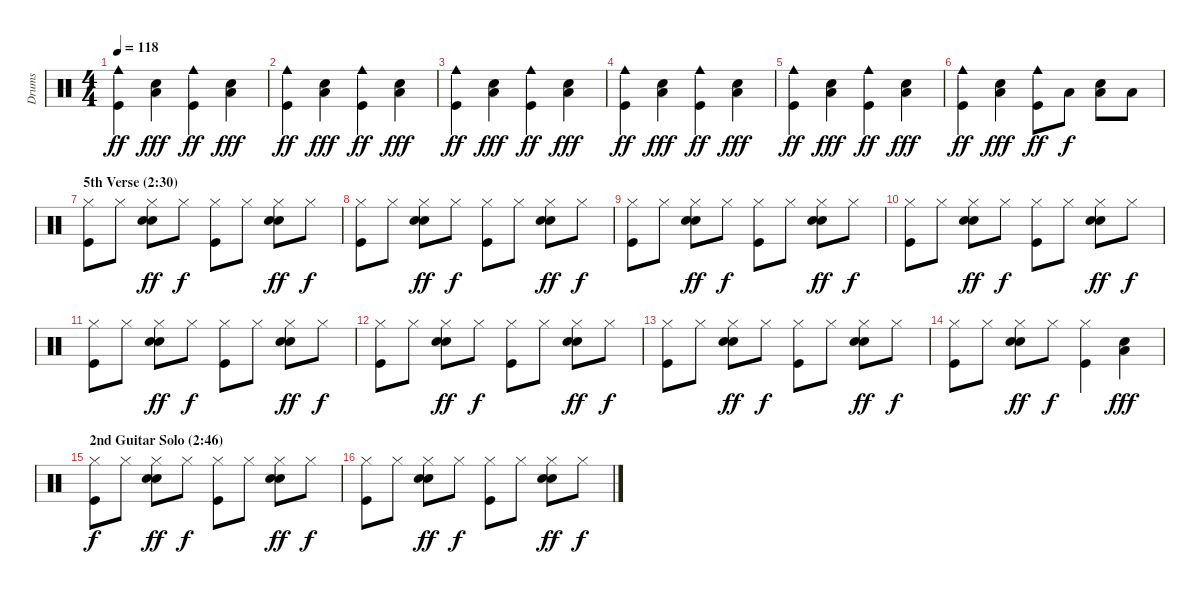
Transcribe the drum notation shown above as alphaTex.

\track ("Drums" "Drums") {instrument percussion}
\staff {score}
\articulation defaults
\ts (4 4)
\tempo 118
\clef neutral
\ks c
("Cowbell medium (hit)" "Kick (hit)").4{dy ff} ("Electric Snare (hit)" "Low Floor Tom (hit)").4{dy fff} ("Cowbell medium (hit)" "Kick (hit)").4{dy ff} ("Electric Snare (hit)" "Low Floor Tom (hit)").4{dy fff} |
("Cowbell medium (hit)" "Kick (hit)").4{dy ff} ("Electric Snare (hit)" "Low Floor Tom (hit)").4{dy fff} ("Cowbell medium (hit)" "Kick (hit)").4{dy ff} ("Electric Snare (hit)" "Low Floor Tom (hit)").4{dy fff} |
("Cowbell medium (hit)" "Kick (hit)").4{dy ff} ("Electric Snare (hit)" "Low Floor Tom (hit)").4{dy fff} ("Cowbell medium (hit)" "Kick (hit)").4{dy ff} ("Electric Snare (hit)" "Low Floor Tom (hit)").4{dy fff} |
("Cowbell medium (hit)" "Kick (hit)").4{dy ff} ("Electric Snare (hit)" "Low Floor Tom (hit)").4{dy fff} ("Cowbell medium (hit)" "Kick (hit)").4{dy ff} ("Electric Snare (hit)" "Low Floor Tom (hit)").4{dy fff} |
("Cowbell medium (hit)" "Kick (hit)").4{dy ff} ("Electric Snare (hit)" "Low Floor Tom (hit)").4{dy fff} ("Cowbell medium (hit)" "Kick (hit)").4{dy ff} ("Electric Snare (hit)" "Low Floor Tom (hit)").4{dy fff} |
("Cowbell medium (hit)" "Kick (hit)").4{dy ff} ("Electric Snare (hit)" "Low Floor Tom (hit)").4{dy fff} ("Cowbell medium (hit)" "Kick (hit)").8{dy ff} "Low Floor Tom (hit)".8{dy f} ("Electric Snare (hit)" "Low Floor Tom (hit)").8 "Low Floor Tom (hit)".8 |
\section ("" "5th Verse (2:30)")
("Hi-Hat (closed)" "Kick (hit)").8 "Hi-Hat (closed)".8 ("Hi-Hat (closed)" "Electric Snare (hit)" "Snare (hit) 2").8{dy ff} "Hi-Hat (closed)".8{dy f} ("Hi-Hat (closed)" "Kick (hit)").8 "Hi-Hat (closed)".8 ("Hi-Hat (closed)" "Electric Snare (hit)" "Snare (hit) 2").8{dy ff} "Hi-Hat (closed)".8{dy f} |
("Hi-Hat (closed)" "Kick (hit)").8 "Hi-Hat (closed)".8 ("Hi-Hat (closed)" "Electric Snare (hit)" "Snare (hit) 2").8{dy ff} "Hi-Hat (closed)".8{dy f} ("Hi-Hat (closed)" "Kick (hit)").8 "Hi-Hat (closed)".8 ("Hi-Hat (closed)" "Electric Snare (hit)" "Snare (hit) 2").8{dy ff} "Hi-Hat (closed)".8{dy f} |
("Hi-Hat (closed)" "Kick (hit)").8 "Hi-Hat (closed)".8 ("Hi-Hat (closed)" "Electric Snare (hit)" "Snare (hit) 2").8{dy ff} "Hi-Hat (closed)".8{dy f} ("Hi-Hat (closed)" "Kick (hit)").8 "Hi-Hat (closed)".8 ("Hi-Hat (closed)" "Electric Snare (hit)" "Snare (hit) 2").8{dy ff} "Hi-Hat (closed)".8{dy f} |
("Hi-Hat (closed)" "Kick (hit)").8 "Hi-Hat (closed)".8 ("Hi-Hat (closed)" "Electric Snare (hit)" "Snare (hit) 2").8{dy ff} "Hi-Hat (closed)".8{dy f} ("Hi-Hat (closed)" "Kick (hit)").8 "Hi-Hat (closed)".8 ("Hi-Hat (closed)" "Electric Snare (hit)" "Snare (hit) 2").8{dy ff} "Hi-Hat (closed)".8{dy f} |
("Hi-Hat (closed)" "Kick (hit)").8 "Hi-Hat (closed)".8 ("Hi-Hat (closed)" "Electric Snare (hit)" "Snare (hit) 2").8{dy ff} "Hi-Hat (closed)".8{dy f} ("Hi-Hat (closed)" "Kick (hit)").8 "Hi-Hat (closed)".8 ("Hi-Hat (closed)" "Electric Snare (hit)" "Snare (hit) 2").8{dy ff} "Hi-Hat (closed)".8{dy f} |
("Hi-Hat (closed)" "Kick (hit)").8 "Hi-Hat (closed)".8 ("Hi-Hat (closed)" "Electric Snare (hit)" "Snare (hit) 2").8{dy ff} "Hi-Hat (closed)".8{dy f} ("Hi-Hat (closed)" "Kick (hit)").8 "Hi-Hat (closed)".8 ("Hi-Hat (closed)" "Electric Snare (hit)" "Snare (hit) 2").8{dy ff} "Hi-Hat (closed)".8{dy f} |
("Hi-Hat (closed)" "Kick (hit)").8 "Hi-Hat (closed)".8 ("Hi-Hat (closed)" "Electric Snare (hit)" "Snare (hit) 2").8{dy ff} "Hi-Hat (closed)".8{dy f} ("Hi-Hat (closed)" "Kick (hit)").8 "Hi-Hat (closed)".8 ("Hi-Hat (closed)" "Electric Snare (hit)" "Snare (hit) 2").8{dy ff} "Hi-Hat (closed)".8{dy f} |
("Hi-Hat (closed)" "Kick (hit)").8 "Hi-Hat (closed)".8 ("Hi-Hat (closed)" "Electric Snare (hit)" "Snare (hit) 2").8{dy ff} "Hi-Hat (closed)".8{dy f} ("Hi-Hat (closed)" "Kick (hit)").4 ("Electric Snare (hit)" "Low Floor Tom (hit)").4{dy fff} |
\section ("" "2nd Guitar Solo (2:46)")
("Hi-Hat (closed)" "Kick (hit)").8{dy f} "Hi-Hat (closed)".8 ("Hi-Hat (closed)" "Electric Snare (hit)" "Snare (hit) 2").8{dy ff} "Hi-Hat (closed)".8{dy f} ("Hi-Hat (closed)" "Kick (hit)").8 "Hi-Hat (closed)".8 ("Hi-Hat (closed)" "Electric Snare (hit)" "Snare (hit) 2").8{dy ff} "Hi-Hat (closed)".8{dy f} |
("Hi-Hat (closed)" "Kick (hit)").8 "Hi-Hat (closed)".8 ("Hi-Hat (closed)" "Electric Snare (hit)" "Snare (hit) 2").8{dy ff} "Hi-Hat (closed)".8{dy f} ("Hi-Hat (closed)" "Kick (hit)").8 "Hi-Hat (closed)".8 ("Hi-Hat (closed)" "Electric Snare (hit)" "Snare (hit) 2").8{dy ff} "Hi-Hat (closed)".8{dy f}
